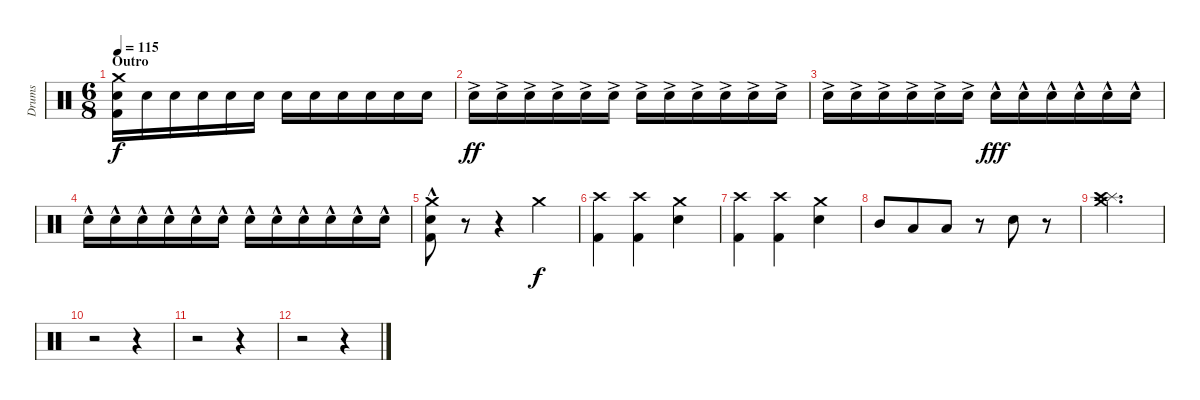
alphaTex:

\track ("Drums" "Drums") {instrument percussion}
\staff {score}
\articulation defaults
\ts (6 8)
\section ("" "Outro")
\tempo 115
\clef neutral
\ks c
("Crash medium (hit)" "Electric Snare (hit)" "Kick (hit) 2").16{dy f} "Electric Snare (hit)".16 "Electric Snare (hit)".16 "Electric Snare (hit)".16 "Electric Snare (hit)".16 "Electric Snare (hit)".16 "Electric Snare (hit)".16 "Electric Snare (hit)".16 "Electric Snare (hit)".16 "Electric Snare (hit)".16 "Electric Snare (hit)".16 "Electric Snare (hit)".16 |
"Electric Snare (hit)"{ac}.16{dy ff} "Electric Snare (hit)"{ac}.16 "Electric Snare (hit)"{ac}.16 "Electric Snare (hit)"{ac}.16 "Electric Snare (hit)"{ac}.16 "Electric Snare (hit)"{ac}.16 "Electric Snare (hit)"{ac}.16 "Electric Snare (hit)"{ac}.16 "Electric Snare (hit)"{ac}.16 "Electric Snare (hit)"{ac}.16 "Electric Snare (hit)"{ac}.16 "Electric Snare (hit)"{ac}.16 |
"Electric Snare (hit)"{ac}.16 "Electric Snare (hit)"{ac}.16 "Electric Snare (hit)"{ac}.16 "Electric Snare (hit)"{ac}.16 "Electric Snare (hit)"{ac}.16 "Electric Snare (hit)"{ac}.16 "Electric Snare (hit)"{hac}.16{dy fff} "Electric Snare (hit)"{hac}.16 "Electric Snare (hit)"{hac}.16 "Electric Snare (hit)"{hac}.16 "Electric Snare (hit)"{hac}.16 "Electric Snare (hit)"{hac}.16 |
"Electric Snare (hit)"{hac}.16 "Electric Snare (hit)"{hac}.16 "Electric Snare (hit)"{hac}.16 "Electric Snare (hit)"{hac}.16 "Electric Snare (hit)"{hac}.16 "Electric Snare (hit)"{hac}.16 "Electric Snare (hit)"{hac}.16 "Electric Snare (hit)"{hac}.16 "Electric Snare (hit)"{hac}.16 "Electric Snare (hit)"{hac}.16 "Electric Snare (hit)"{hac}.16 "Electric Snare (hit)"{hac}.16 |
("Crash medium (hit)" "Electric Snare (hit)"{hac} "Kick (hit) 2").8 r.8 r.4 "Crash medium (hit)".4{dy f} |
("Crash high (hit)" "Kick (hit) 2").4 ("Crash high (hit)" "Kick (hit) 2").4 ("Crash medium (hit)" "Electric Snare (hit)").4 |
("Crash high (hit)" "Kick (hit) 2").4 ("Crash high (hit)" "Kick (hit) 2").4 ("Crash medium (hit)" "Electric Snare (hit)").4 |
"Mid Tom (hit)".8 "Low Tom (hit)".8 "Low Tom (hit)".8 r.8 "Electric Snare (hit)".8 r.8 |
("Crash medium (hit)" "Splash (hit)" "Crash high (hit)").2{d} |
r.2 r.4 |
r.2 r.4 |
r.2 r.4
